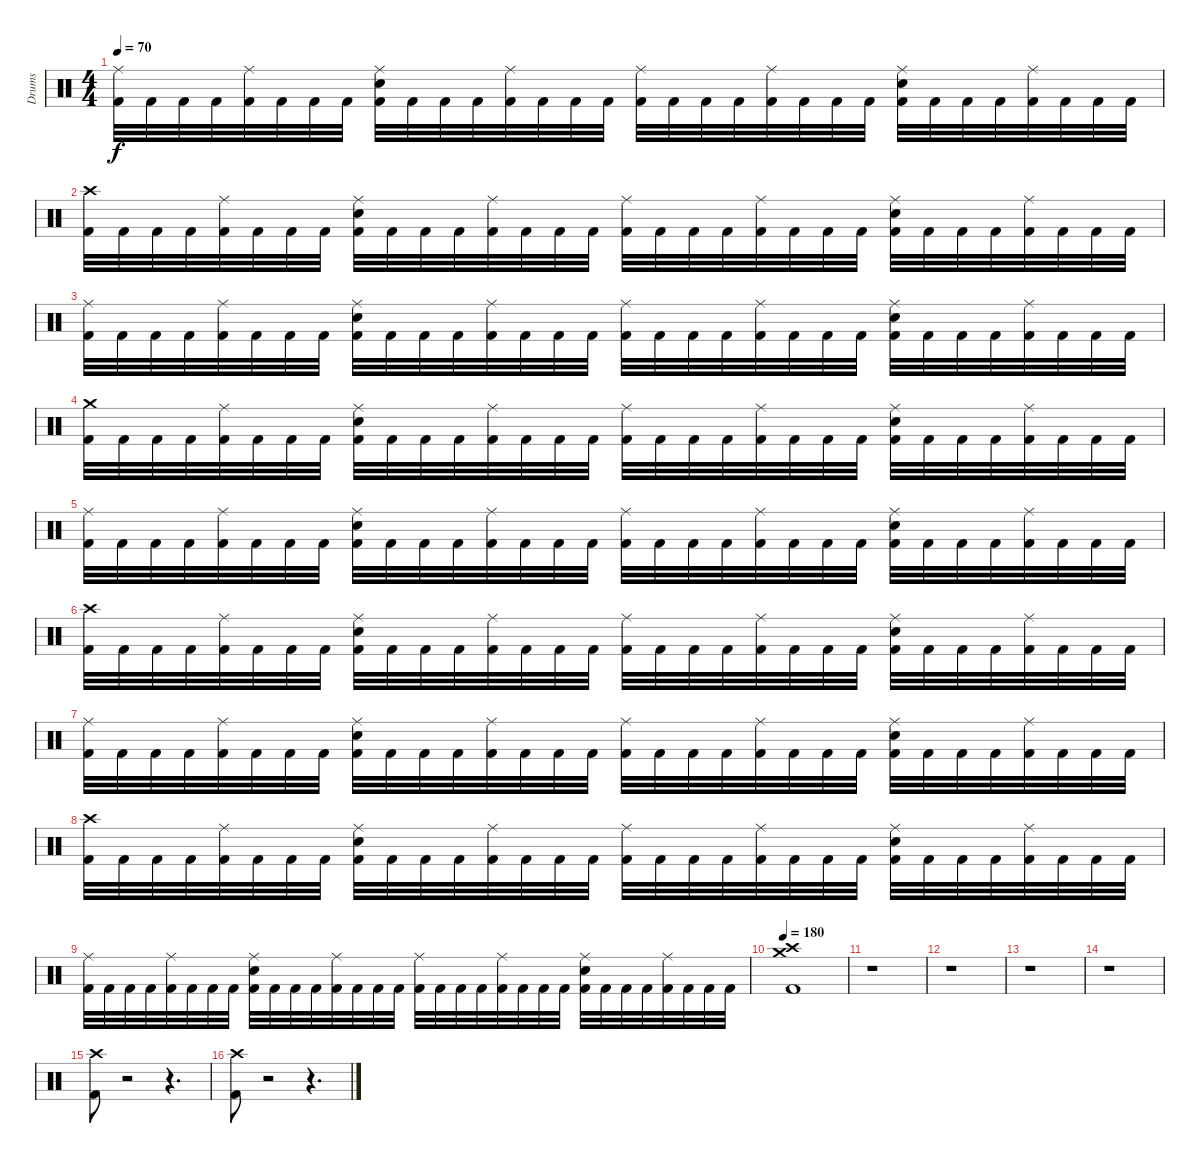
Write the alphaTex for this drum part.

\track ("Drums" "Drums") {instrument percussion}
\staff {score}
\articulation defaults
\ts (4 4)
\tempo 70
\clef neutral
\ks c
("Kick (hit) 2" "Ride (middle)").32{dy f} "Kick (hit) 2".32 "Kick (hit) 2".32 "Kick (hit) 2".32 ("Kick (hit) 2" "Ride (middle)").32 "Kick (hit) 2".32 "Kick (hit) 2".32 "Kick (hit) 2".32 ("Kick (hit) 2" "Ride (middle)" "Snare (hit) 2").32 "Kick (hit) 2".32 "Kick (hit) 2".32 "Kick (hit) 2".32 ("Kick (hit) 2" "Ride (middle)").32 "Kick (hit) 2".32 "Kick (hit) 2".32 "Kick (hit) 2".32 ("Kick (hit) 2" "Ride (middle)").32 "Kick (hit) 2".32 "Kick (hit) 2".32 "Kick (hit) 2".32 ("Kick (hit) 2" "Ride (middle)").32 "Kick (hit) 2".32 "Kick (hit) 2".32 "Kick (hit) 2".32 ("Kick (hit) 2" "Ride (middle)" "Snare (hit) 2").32 "Kick (hit) 2".32 "Kick (hit) 2".32 "Kick (hit) 2".32 ("Kick (hit) 2" "Ride (middle)").32 "Kick (hit) 2".32 "Kick (hit) 2".32 "Kick (hit) 2".32 |
("Kick (hit) 2" "Crash high (hit)").32 "Kick (hit) 2".32 "Kick (hit) 2".32 "Kick (hit) 2".32 ("Kick (hit) 2" "Ride (middle)").32 "Kick (hit) 2".32 "Kick (hit) 2".32 "Kick (hit) 2".32 ("Kick (hit) 2" "Ride (middle)" "Snare (hit) 2").32 "Kick (hit) 2".32 "Kick (hit) 2".32 "Kick (hit) 2".32 ("Kick (hit) 2" "Ride (middle)").32 "Kick (hit) 2".32 "Kick (hit) 2".32 "Kick (hit) 2".32 ("Kick (hit) 2" "Ride (middle)").32 "Kick (hit) 2".32 "Kick (hit) 2".32 "Kick (hit) 2".32 ("Kick (hit) 2" "Ride (middle)").32 "Kick (hit) 2".32 "Kick (hit) 2".32 "Kick (hit) 2".32 ("Kick (hit) 2" "Ride (middle)" "Snare (hit) 2").32 "Kick (hit) 2".32 "Kick (hit) 2".32 "Kick (hit) 2".32 ("Kick (hit) 2" "Ride (middle)").32 "Kick (hit) 2".32 "Kick (hit) 2".32 "Kick (hit) 2".32 |
("Kick (hit) 2" "Ride (middle)").32 "Kick (hit) 2".32 "Kick (hit) 2".32 "Kick (hit) 2".32 ("Kick (hit) 2" "Ride (middle)").32 "Kick (hit) 2".32 "Kick (hit) 2".32 "Kick (hit) 2".32 ("Kick (hit) 2" "Ride (middle)" "Snare (hit) 2").32 "Kick (hit) 2".32 "Kick (hit) 2".32 "Kick (hit) 2".32 ("Kick (hit) 2" "Ride (middle)").32 "Kick (hit) 2".32 "Kick (hit) 2".32 "Kick (hit) 2".32 ("Kick (hit) 2" "Ride (middle)").32 "Kick (hit) 2".32 "Kick (hit) 2".32 "Kick (hit) 2".32 ("Kick (hit) 2" "Ride (middle)").32 "Kick (hit) 2".32 "Kick (hit) 2".32 "Kick (hit) 2".32 ("Kick (hit) 2" "Ride (middle)" "Snare (hit) 2").32 "Kick (hit) 2".32 "Kick (hit) 2".32 "Kick (hit) 2".32 ("Kick (hit) 2" "Ride (middle)").32 "Kick (hit) 2".32 "Kick (hit) 2".32 "Kick (hit) 2".32 |
("Kick (hit) 2" "Crash medium (hit)").32 "Kick (hit) 2".32 "Kick (hit) 2".32 "Kick (hit) 2".32 ("Kick (hit) 2" "Ride (middle)").32 "Kick (hit) 2".32 "Kick (hit) 2".32 "Kick (hit) 2".32 ("Kick (hit) 2" "Ride (middle)" "Snare (hit) 2").32 "Kick (hit) 2".32 "Kick (hit) 2".32 "Kick (hit) 2".32 ("Kick (hit) 2" "Ride (middle)").32 "Kick (hit) 2".32 "Kick (hit) 2".32 "Kick (hit) 2".32 ("Kick (hit) 2" "Ride (middle)").32 "Kick (hit) 2".32 "Kick (hit) 2".32 "Kick (hit) 2".32 ("Kick (hit) 2" "Ride (middle)").32 "Kick (hit) 2".32 "Kick (hit) 2".32 "Kick (hit) 2".32 ("Kick (hit) 2" "Ride (middle)" "Snare (hit) 2").32 "Kick (hit) 2".32 "Kick (hit) 2".32 "Kick (hit) 2".32 ("Kick (hit) 2" "Ride (middle)").32 "Kick (hit) 2".32 "Kick (hit) 2".32 "Kick (hit) 2".32 |
("Kick (hit) 2" "Ride (middle)").32 "Kick (hit) 2".32 "Kick (hit) 2".32 "Kick (hit) 2".32 ("Kick (hit) 2" "Ride (middle)").32 "Kick (hit) 2".32 "Kick (hit) 2".32 "Kick (hit) 2".32 ("Kick (hit) 2" "Ride (middle)" "Snare (hit) 2").32 "Kick (hit) 2".32 "Kick (hit) 2".32 "Kick (hit) 2".32 ("Kick (hit) 2" "Ride (middle)").32 "Kick (hit) 2".32 "Kick (hit) 2".32 "Kick (hit) 2".32 ("Kick (hit) 2" "Ride (middle)").32 "Kick (hit) 2".32 "Kick (hit) 2".32 "Kick (hit) 2".32 ("Kick (hit) 2" "Ride (middle)").32 "Kick (hit) 2".32 "Kick (hit) 2".32 "Kick (hit) 2".32 ("Kick (hit) 2" "Ride (middle)" "Snare (hit) 2").32 "Kick (hit) 2".32 "Kick (hit) 2".32 "Kick (hit) 2".32 ("Kick (hit) 2" "Ride (middle)").32 "Kick (hit) 2".32 "Kick (hit) 2".32 "Kick (hit) 2".32 |
("Kick (hit) 2" "Crash high (hit)").32 "Kick (hit) 2".32 "Kick (hit) 2".32 "Kick (hit) 2".32 ("Kick (hit) 2" "Ride (middle)").32 "Kick (hit) 2".32 "Kick (hit) 2".32 "Kick (hit) 2".32 ("Kick (hit) 2" "Ride (middle)" "Snare (hit) 2").32 "Kick (hit) 2".32 "Kick (hit) 2".32 "Kick (hit) 2".32 ("Kick (hit) 2" "Ride (middle)").32 "Kick (hit) 2".32 "Kick (hit) 2".32 "Kick (hit) 2".32 ("Kick (hit) 2" "Ride (middle)").32 "Kick (hit) 2".32 "Kick (hit) 2".32 "Kick (hit) 2".32 ("Kick (hit) 2" "Ride (middle)").32 "Kick (hit) 2".32 "Kick (hit) 2".32 "Kick (hit) 2".32 ("Kick (hit) 2" "Ride (middle)" "Snare (hit) 2").32 "Kick (hit) 2".32 "Kick (hit) 2".32 "Kick (hit) 2".32 ("Kick (hit) 2" "Ride (middle)").32 "Kick (hit) 2".32 "Kick (hit) 2".32 "Kick (hit) 2".32 |
("Kick (hit) 2" "Ride (middle)").32 "Kick (hit) 2".32 "Kick (hit) 2".32 "Kick (hit) 2".32 ("Kick (hit) 2" "Ride (middle)").32 "Kick (hit) 2".32 "Kick (hit) 2".32 "Kick (hit) 2".32 ("Kick (hit) 2" "Ride (middle)" "Snare (hit) 2").32 "Kick (hit) 2".32 "Kick (hit) 2".32 "Kick (hit) 2".32 ("Kick (hit) 2" "Ride (middle)").32 "Kick (hit) 2".32 "Kick (hit) 2".32 "Kick (hit) 2".32 ("Kick (hit) 2" "Ride (middle)").32 "Kick (hit) 2".32 "Kick (hit) 2".32 "Kick (hit) 2".32 ("Kick (hit) 2" "Ride (middle)").32 "Kick (hit) 2".32 "Kick (hit) 2".32 "Kick (hit) 2".32 ("Kick (hit) 2" "Ride (middle)" "Snare (hit) 2").32 "Kick (hit) 2".32 "Kick (hit) 2".32 "Kick (hit) 2".32 ("Kick (hit) 2" "Ride (middle)").32 "Kick (hit) 2".32 "Kick (hit) 2".32 "Kick (hit) 2".32 |
("Kick (hit) 2" "Crash high (hit)").32 "Kick (hit) 2".32 "Kick (hit) 2".32 "Kick (hit) 2".32 ("Kick (hit) 2" "Ride (middle)").32 "Kick (hit) 2".32 "Kick (hit) 2".32 "Kick (hit) 2".32 ("Kick (hit) 2" "Ride (middle)" "Snare (hit) 2").32 "Kick (hit) 2".32 "Kick (hit) 2".32 "Kick (hit) 2".32 ("Kick (hit) 2" "Ride (middle)").32 "Kick (hit) 2".32 "Kick (hit) 2".32 "Kick (hit) 2".32 ("Kick (hit) 2" "Ride (middle)").32 "Kick (hit) 2".32 "Kick (hit) 2".32 "Kick (hit) 2".32 ("Kick (hit) 2" "Ride (middle)").32 "Kick (hit) 2".32 "Kick (hit) 2".32 "Kick (hit) 2".32 ("Kick (hit) 2" "Ride (middle)" "Snare (hit) 2").32 "Kick (hit) 2".32 "Kick (hit) 2".32 "Kick (hit) 2".32 ("Kick (hit) 2" "Ride (middle)").32 "Kick (hit) 2".32 "Kick (hit) 2".32 "Kick (hit) 2".32 |
("Kick (hit) 2" "Ride (middle)").32 "Kick (hit) 2".32 "Kick (hit) 2".32 "Kick (hit) 2".32 ("Kick (hit) 2" "Ride (middle)").32 "Kick (hit) 2".32 "Kick (hit) 2".32 "Kick (hit) 2".32 ("Kick (hit) 2" "Ride (middle)" "Snare (hit) 2").32 "Kick (hit) 2".32 "Kick (hit) 2".32 "Kick (hit) 2".32 ("Kick (hit) 2" "Ride (middle)").32 "Kick (hit) 2".32 "Kick (hit) 2".32 "Kick (hit) 2".32 ("Kick (hit) 2" "Ride (middle)").32 "Kick (hit) 2".32 "Kick (hit) 2".32 "Kick (hit) 2".32 ("Kick (hit) 2" "Ride (middle)").32 "Kick (hit) 2".32 "Kick (hit) 2".32 "Kick (hit) 2".32 ("Kick (hit) 2" "Ride (middle)" "Snare (hit) 2").32 "Kick (hit) 2".32 "Kick (hit) 2".32 "Kick (hit) 2".32 ("Kick (hit) 2" "Ride (middle)").32 "Kick (hit) 2".32 "Kick (hit) 2".32 "Kick (hit) 2".32 |
\tempo 180
("Kick (hit) 2" "Crash high (hit)" "Crash medium (hit)").1 |
r.1 |
r.1 |
r.1 |
r.1 |
("Kick (hit) 2" "Crash high (hit)").8 r.2 r.4{d} |
("Kick (hit) 2" "Crash high (hit)").8 r.2 r.4{d}
